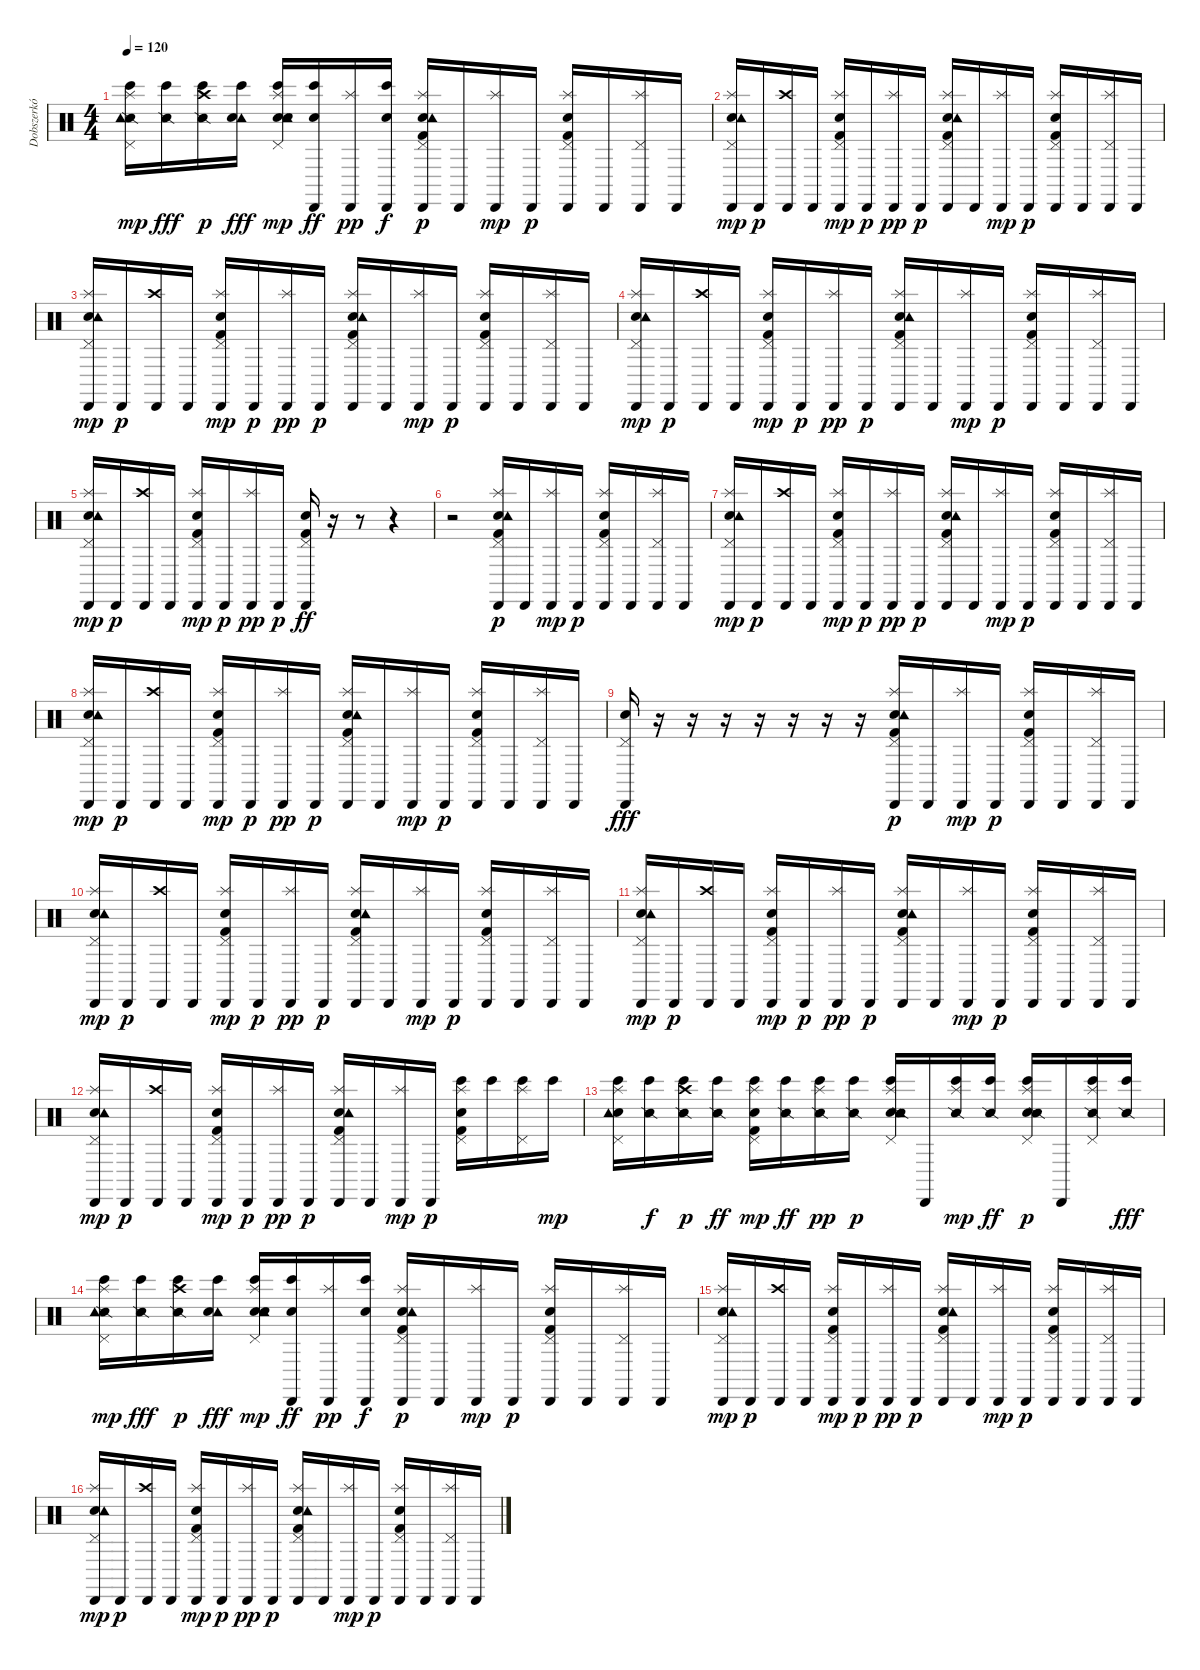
\track ("Dobszerkó" "Dobszerkó") {instrument percussion}
\staff {score}
\articulation defaults
\ts (4 4)
\tempo 120
\clef neutral
\ks c
("Bongo High (hit)" "Snare (side stick) 2" "Tambourine (hit)" "Pedal Hi-Hat (hit)" "Splash (hit)").16{dy mp} ("Bongo High (hit)" "Snare (side stick) 2").16{dy fff} ("Bongo High (hit)" "Snare (side stick) 2" "Crash high (hit)").16{dy p} ("Tambourine (hit)" "Snare (hit) 2" "Bongo High (hit)").16{dy fff} ("Electric Snare (hit)" "Tambourine (hit)" "Snare (hit) 2" "Bongo High (hit)" "Pedal Hi-Hat (hit)" "Splash (hit)").16{dy mp} ("Cabasa (hit)" "Snare (hit) 2" "Bongo High (hit)").16{dy ff} ("Cabasa (hit)" "Splash (hit)").16{dy pp} ("Cabasa (hit)" "Snare (hit) 2" "Bongo High (hit)").16{dy f} ("Snare (hit) 2" "Cabasa (hit)" "Kick (hit) 2" "Tambourine (hit)" "Pedal Hi-Hat (hit)" "Splash (hit)").16{dy p} "Cabasa (hit)".16 ("Cabasa (hit)" "Splash (hit)").16{dy mp} "Cabasa (hit)".16{dy p} ("Electric Snare (hit)" "Cabasa (hit)" "Kick (hit) 2" "Pedal Hi-Hat (hit)" "Splash (hit)").16 "Cabasa (hit)".16 ("Cabasa (hit)" "Pedal Hi-Hat (hit)" "Splash (hit)").16 "Cabasa (hit)".16 |
("Cabasa (hit)" "Snare (hit) 2" "Tambourine (hit)" "Pedal Hi-Hat (hit)" "Splash (hit)").16{dy mp} "Cabasa (hit)".16{dy p} ("Cabasa (hit)" "Crash high (hit)").16 "Cabasa (hit)".16 ("Electric Snare (hit)" "Cabasa (hit)" "Kick (hit) 2" "Pedal Hi-Hat (hit)" "Splash (hit)").16{dy mp} "Cabasa (hit)".16{dy p} ("Cabasa (hit)" "Splash (hit)").16{dy pp} "Cabasa (hit)".16{dy p} ("Snare (hit) 2" "Cabasa (hit)" "Kick (hit) 2" "Tambourine (hit)" "Pedal Hi-Hat (hit)" "Splash (hit)").16 "Cabasa (hit)".16 ("Cabasa (hit)" "Splash (hit)").16{dy mp} "Cabasa (hit)".16{dy p} ("Electric Snare (hit)" "Cabasa (hit)" "Kick (hit) 2" "Pedal Hi-Hat (hit)" "Splash (hit)").16 "Cabasa (hit)".16 ("Cabasa (hit)" "Pedal Hi-Hat (hit)" "Splash (hit)").16 "Cabasa (hit)".16 |
("Cabasa (hit)" "Snare (hit) 2" "Tambourine (hit)" "Pedal Hi-Hat (hit)" "Splash (hit)").16{dy mp} "Cabasa (hit)".16{dy p} ("Cabasa (hit)" "Crash high (hit)").16 "Cabasa (hit)".16 ("Electric Snare (hit)" "Cabasa (hit)" "Kick (hit) 2" "Pedal Hi-Hat (hit)" "Splash (hit)").16{dy mp} "Cabasa (hit)".16{dy p} ("Cabasa (hit)" "Splash (hit)").16{dy pp} "Cabasa (hit)".16{dy p} ("Snare (hit) 2" "Cabasa (hit)" "Kick (hit) 2" "Tambourine (hit)" "Pedal Hi-Hat (hit)" "Splash (hit)").16 "Cabasa (hit)".16 ("Cabasa (hit)" "Splash (hit)").16{dy mp} "Cabasa (hit)".16{dy p} ("Electric Snare (hit)" "Cabasa (hit)" "Kick (hit) 2" "Pedal Hi-Hat (hit)" "Splash (hit)").16 "Cabasa (hit)".16 ("Cabasa (hit)" "Pedal Hi-Hat (hit)" "Splash (hit)").16 "Cabasa (hit)".16 |
("Cabasa (hit)" "Snare (hit) 2" "Tambourine (hit)" "Pedal Hi-Hat (hit)" "Splash (hit)").16{dy mp} "Cabasa (hit)".16{dy p} ("Cabasa (hit)" "Crash high (hit)").16 "Cabasa (hit)".16 ("Electric Snare (hit)" "Cabasa (hit)" "Kick (hit) 2" "Pedal Hi-Hat (hit)" "Splash (hit)").16{dy mp} "Cabasa (hit)".16{dy p} ("Cabasa (hit)" "Splash (hit)").16{dy pp} "Cabasa (hit)".16{dy p} ("Snare (hit) 2" "Cabasa (hit)" "Kick (hit) 2" "Tambourine (hit)" "Pedal Hi-Hat (hit)" "Splash (hit)").16 "Cabasa (hit)".16 ("Cabasa (hit)" "Splash (hit)").16{dy mp} "Cabasa (hit)".16{dy p} ("Electric Snare (hit)" "Cabasa (hit)" "Kick (hit) 2" "Pedal Hi-Hat (hit)" "Splash (hit)").16 "Cabasa (hit)".16 ("Cabasa (hit)" "Pedal Hi-Hat (hit)" "Splash (hit)").16 "Cabasa (hit)".16 |
("Cabasa (hit)" "Snare (hit) 2" "Tambourine (hit)" "Pedal Hi-Hat (hit)" "Splash (hit)").16{dy mp} "Cabasa (hit)".16{dy p} ("Cabasa (hit)" "Crash high (hit)").16 "Cabasa (hit)".16 ("Electric Snare (hit)" "Cabasa (hit)" "Kick (hit) 2" "Pedal Hi-Hat (hit)" "Splash (hit)").16{dy mp} "Cabasa (hit)".16{dy p} ("Cabasa (hit)" "Splash (hit)").16{dy pp} "Cabasa (hit)".16{dy p} ("Snare (hit) 2" "Cabasa (hit)" "Kick (hit) 2" "Pedal Hi-Hat (hit)").16{dy ff} r.16 r.8 r.4 |
r.2 ("Snare (hit) 2" "Cabasa (hit)" "Kick (hit) 2" "Tambourine (hit)" "Pedal Hi-Hat (hit)" "Splash (hit)").16{dy p} "Cabasa (hit)".16 ("Cabasa (hit)" "Splash (hit)").16{dy mp} "Cabasa (hit)".16{dy p} ("Electric Snare (hit)" "Cabasa (hit)" "Kick (hit) 2" "Pedal Hi-Hat (hit)" "Splash (hit)").16 "Cabasa (hit)".16 ("Cabasa (hit)" "Pedal Hi-Hat (hit)" "Splash (hit)").16 "Cabasa (hit)".16 |
("Cabasa (hit)" "Snare (hit) 2" "Tambourine (hit)" "Pedal Hi-Hat (hit)" "Splash (hit)").16{dy mp} "Cabasa (hit)".16{dy p} ("Cabasa (hit)" "Crash high (hit)").16 "Cabasa (hit)".16 ("Electric Snare (hit)" "Cabasa (hit)" "Kick (hit) 2" "Pedal Hi-Hat (hit)" "Splash (hit)").16{dy mp} "Cabasa (hit)".16{dy p} ("Cabasa (hit)" "Splash (hit)").16{dy pp} "Cabasa (hit)".16{dy p} ("Snare (hit) 2" "Cabasa (hit)" "Kick (hit) 2" "Tambourine (hit)" "Pedal Hi-Hat (hit)" "Splash (hit)").16 "Cabasa (hit)".16 ("Cabasa (hit)" "Splash (hit)").16{dy mp} "Cabasa (hit)".16{dy p} ("Electric Snare (hit)" "Cabasa (hit)" "Kick (hit) 2" "Pedal Hi-Hat (hit)" "Splash (hit)").16 "Cabasa (hit)".16 ("Cabasa (hit)" "Pedal Hi-Hat (hit)" "Splash (hit)").16 "Cabasa (hit)".16 |
("Cabasa (hit)" "Snare (hit) 2" "Tambourine (hit)" "Pedal Hi-Hat (hit)" "Splash (hit)").16{dy mp} "Cabasa (hit)".16{dy p} ("Cabasa (hit)" "Crash high (hit)").16 "Cabasa (hit)".16 ("Electric Snare (hit)" "Cabasa (hit)" "Kick (hit) 2" "Pedal Hi-Hat (hit)" "Splash (hit)").16{dy mp} "Cabasa (hit)".16{dy p} ("Cabasa (hit)" "Splash (hit)").16{dy pp} "Cabasa (hit)".16{dy p} ("Snare (hit) 2" "Cabasa (hit)" "Kick (hit) 2" "Tambourine (hit)" "Pedal Hi-Hat (hit)" "Splash (hit)").16 "Cabasa (hit)".16 ("Cabasa (hit)" "Splash (hit)").16{dy mp} "Cabasa (hit)".16{dy p} ("Electric Snare (hit)" "Cabasa (hit)" "Kick (hit) 2" "Pedal Hi-Hat (hit)" "Splash (hit)").16 "Cabasa (hit)".16 ("Cabasa (hit)" "Pedal Hi-Hat (hit)" "Splash (hit)").16 "Cabasa (hit)".16 |
("Cabasa (hit)" "Snare (hit) 2" "Pedal Hi-Hat (hit)").16{dy fff} r.16 r.16 r.16 r.16 r.16 r.16 r.16 ("Snare (hit) 2" "Cabasa (hit)" "Kick (hit) 2" "Tambourine (hit)" "Pedal Hi-Hat (hit)" "Splash (hit)").16{dy p} "Cabasa (hit)".16 ("Cabasa (hit)" "Splash (hit)").16{dy mp} "Cabasa (hit)".16{dy p} ("Electric Snare (hit)" "Cabasa (hit)" "Kick (hit) 2" "Pedal Hi-Hat (hit)" "Splash (hit)").16 "Cabasa (hit)".16 ("Cabasa (hit)" "Pedal Hi-Hat (hit)" "Splash (hit)").16 "Cabasa (hit)".16 |
("Cabasa (hit)" "Snare (hit) 2" "Tambourine (hit)" "Pedal Hi-Hat (hit)" "Splash (hit)").16{dy mp} "Cabasa (hit)".16{dy p} ("Cabasa (hit)" "Crash high (hit)").16 "Cabasa (hit)".16 ("Electric Snare (hit)" "Cabasa (hit)" "Kick (hit) 2" "Pedal Hi-Hat (hit)" "Splash (hit)").16{dy mp} "Cabasa (hit)".16{dy p} ("Cabasa (hit)" "Splash (hit)").16{dy pp} "Cabasa (hit)".16{dy p} ("Snare (hit) 2" "Cabasa (hit)" "Kick (hit) 2" "Tambourine (hit)" "Pedal Hi-Hat (hit)" "Splash (hit)").16 "Cabasa (hit)".16 ("Cabasa (hit)" "Splash (hit)").16{dy mp} "Cabasa (hit)".16{dy p} ("Electric Snare (hit)" "Cabasa (hit)" "Kick (hit) 2" "Pedal Hi-Hat (hit)" "Splash (hit)").16 "Cabasa (hit)".16 ("Cabasa (hit)" "Pedal Hi-Hat (hit)" "Splash (hit)").16 "Cabasa (hit)".16 |
("Cabasa (hit)" "Snare (hit) 2" "Tambourine (hit)" "Pedal Hi-Hat (hit)" "Splash (hit)").16{dy mp} "Cabasa (hit)".16{dy p} ("Cabasa (hit)" "Crash high (hit)").16 "Cabasa (hit)".16 ("Electric Snare (hit)" "Cabasa (hit)" "Kick (hit) 2" "Pedal Hi-Hat (hit)" "Splash (hit)").16{dy mp} "Cabasa (hit)".16{dy p} ("Cabasa (hit)" "Splash (hit)").16{dy pp} "Cabasa (hit)".16{dy p} ("Snare (hit) 2" "Cabasa (hit)" "Kick (hit) 2" "Tambourine (hit)" "Pedal Hi-Hat (hit)" "Splash (hit)").16 "Cabasa (hit)".16 ("Cabasa (hit)" "Splash (hit)").16{dy mp} "Cabasa (hit)".16{dy p} ("Electric Snare (hit)" "Cabasa (hit)" "Kick (hit) 2" "Pedal Hi-Hat (hit)" "Splash (hit)").16 "Cabasa (hit)".16 ("Cabasa (hit)" "Pedal Hi-Hat (hit)" "Splash (hit)").16 "Cabasa (hit)".16 |
("Cabasa (hit)" "Snare (hit) 2" "Tambourine (hit)" "Pedal Hi-Hat (hit)" "Splash (hit)").16{dy mp} "Cabasa (hit)".16{dy p} ("Cabasa (hit)" "Crash high (hit)").16 "Cabasa (hit)".16 ("Electric Snare (hit)" "Cabasa (hit)" "Kick (hit) 2" "Pedal Hi-Hat (hit)" "Splash (hit)").16{dy mp} "Cabasa (hit)".16{dy p} ("Cabasa (hit)" "Splash (hit)").16{dy pp} "Cabasa (hit)".16{dy p} ("Snare (hit) 2" "Cabasa (hit)" "Kick (hit) 2" "Tambourine (hit)" "Pedal Hi-Hat (hit)" "Splash (hit)").16 "Cabasa (hit)".16 ("Cabasa (hit)" "Splash (hit)").16{dy mp} "Cabasa (hit)".16{dy p} ("Electric Snare (hit)" "Bongo High (hit)" "Kick (hit) 2" "Pedal Hi-Hat (hit)" "Splash (hit)").16 "Bongo High (hit)".16 ("Bongo High (hit)" "Pedal Hi-Hat (hit)" "Splash (hit)").16 "Bongo High (hit)".16{dy mp} |
("Bongo High (hit)" "Snare (hit) 2" "Tambourine (hit)" "Pedal Hi-Hat (hit)" "Splash (hit)").16 ("Bongo High (hit)" "Snare (side stick) 2").16{dy f} ("Bongo High (hit)" "Snare (side stick) 2" "Crash high (hit)").16{dy p} ("Bongo High (hit)" "Snare (side stick) 2").16{dy ff} ("Electric Snare (hit)" "Bongo High (hit)" "Kick (hit) 2" "Pedal Hi-Hat (hit)" "Splash (hit)").16{dy mp} ("Bongo High (hit)" "Snare (side stick) 2").16{dy ff} ("Bongo High (hit)" "Snare (side stick) 2" "Splash (hit)").16{dy pp} ("Bongo High (hit)" "Snare (side stick) 2").16{dy p} ("Snare (hit) 2" "Bongo High (hit)" "Snare (side stick) 2" "Tambourine (hit)" "Pedal Hi-Hat (hit)" "Splash (hit)").16 "Cabasa (hit)".16 ("Bongo High (hit)" "Snare (side stick) 2" "Splash (hit)").16{dy mp} ("Bongo High (hit)" "Snare (side stick) 2").16{dy ff} ("Electric Snare (hit)" "Bongo High (hit)" "Snare (side stick) 2" "Pedal Hi-Hat (hit)" "Splash (hit)").16{dy p} "Cabasa (hit)".16 ("Bongo High (hit)" "Snare (side stick) 2" "Pedal Hi-Hat (hit)" "Splash (hit)").16 ("Bongo High (hit)" "Snare (side stick) 2").16{dy fff} |
("Bongo High (hit)" "Snare (side stick) 2" "Tambourine (hit)" "Pedal Hi-Hat (hit)" "Splash (hit)").16{dy mp} ("Bongo High (hit)" "Snare (side stick) 2").16{dy fff} ("Bongo High (hit)" "Snare (side stick) 2" "Crash high (hit)").16{dy p} ("Tambourine (hit)" "Snare (hit) 2" "Bongo High (hit)").16{dy fff} ("Electric Snare (hit)" "Tambourine (hit)" "Snare (hit) 2" "Bongo High (hit)" "Pedal Hi-Hat (hit)" "Splash (hit)").16{dy mp} ("Cabasa (hit)" "Snare (hit) 2" "Bongo High (hit)").16{dy ff} ("Cabasa (hit)" "Splash (hit)").16{dy pp} ("Cabasa (hit)" "Snare (hit) 2" "Bongo High (hit)").16{dy f} ("Snare (hit) 2" "Cabasa (hit)" "Kick (hit) 2" "Tambourine (hit)" "Pedal Hi-Hat (hit)" "Splash (hit)").16{dy p} "Cabasa (hit)".16 ("Cabasa (hit)" "Splash (hit)").16{dy mp} "Cabasa (hit)".16{dy p} ("Electric Snare (hit)" "Cabasa (hit)" "Kick (hit) 2" "Pedal Hi-Hat (hit)" "Splash (hit)").16 "Cabasa (hit)".16 ("Cabasa (hit)" "Pedal Hi-Hat (hit)" "Splash (hit)").16 "Cabasa (hit)".16 |
("Cabasa (hit)" "Snare (hit) 2" "Tambourine (hit)" "Pedal Hi-Hat (hit)" "Splash (hit)").16{dy mp} "Cabasa (hit)".16{dy p} ("Cabasa (hit)" "Crash high (hit)").16 "Cabasa (hit)".16 ("Electric Snare (hit)" "Cabasa (hit)" "Kick (hit) 2" "Pedal Hi-Hat (hit)" "Splash (hit)").16{dy mp} "Cabasa (hit)".16{dy p} ("Cabasa (hit)" "Splash (hit)").16{dy pp} "Cabasa (hit)".16{dy p} ("Snare (hit) 2" "Cabasa (hit)" "Kick (hit) 2" "Tambourine (hit)" "Pedal Hi-Hat (hit)" "Splash (hit)").16 "Cabasa (hit)".16 ("Cabasa (hit)" "Splash (hit)").16{dy mp} "Cabasa (hit)".16{dy p} ("Electric Snare (hit)" "Cabasa (hit)" "Kick (hit) 2" "Pedal Hi-Hat (hit)" "Splash (hit)").16 "Cabasa (hit)".16 ("Cabasa (hit)" "Pedal Hi-Hat (hit)" "Splash (hit)").16 "Cabasa (hit)".16 |
("Cabasa (hit)" "Snare (hit) 2" "Tambourine (hit)" "Pedal Hi-Hat (hit)" "Splash (hit)").16{dy mp} "Cabasa (hit)".16{dy p} ("Cabasa (hit)" "Crash high (hit)").16 "Cabasa (hit)".16 ("Electric Snare (hit)" "Cabasa (hit)" "Kick (hit) 2" "Pedal Hi-Hat (hit)" "Splash (hit)").16{dy mp} "Cabasa (hit)".16{dy p} ("Cabasa (hit)" "Splash (hit)").16{dy pp} "Cabasa (hit)".16{dy p} ("Snare (hit) 2" "Cabasa (hit)" "Kick (hit) 2" "Tambourine (hit)" "Pedal Hi-Hat (hit)" "Splash (hit)").16 "Cabasa (hit)".16 ("Cabasa (hit)" "Splash (hit)").16{dy mp} "Cabasa (hit)".16{dy p} ("Electric Snare (hit)" "Cabasa (hit)" "Kick (hit) 2" "Pedal Hi-Hat (hit)" "Splash (hit)").16 "Cabasa (hit)".16 ("Cabasa (hit)" "Pedal Hi-Hat (hit)" "Splash (hit)").16 "Cabasa (hit)".16
